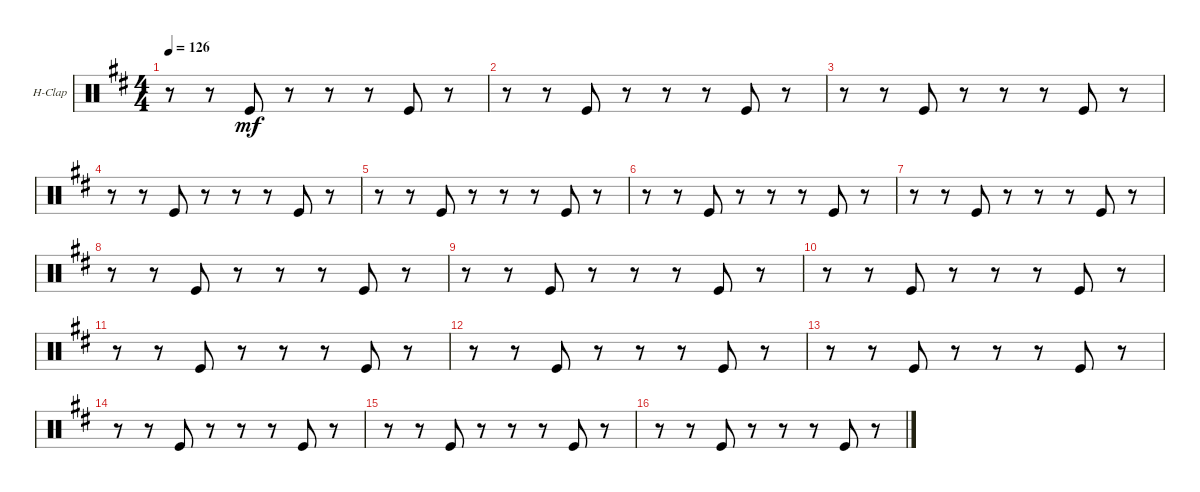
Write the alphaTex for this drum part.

\bracketExtendMode groupsimilarinstruments
\firstSystemTrackNameOrientation horizontal
\otherSystemsTrackNameOrientation horizontal
\track ("Hand Clap" "H-Clap") {instrument percussion}
\staff {score}
\articulation defaults
\ts (4 4)
\tempo 126
\clef neutral
\scale
0.333333
\ks d
r.8{dy mf} r.8 "Kick (hit)".8 r.8 r.8 r.8 "Kick (hit)".8 r.8 |
\scale
0.333333 r.8 r.8 "Kick (hit)".8 r.8 r.8 r.8 "Kick (hit)".8 r.8 |
\scale
0.333333 r.8 r.8 "Kick (hit)".8 r.8 r.8 r.8 "Kick (hit)".8 r.8 |
\scale
0.333333 r.8 r.8 "Kick (hit)".8 r.8 r.8 r.8 "Kick (hit)".8 r.8 |
\scale
0.333333 r.8 r.8 "Kick (hit)".8 r.8 r.8 r.8 "Kick (hit)".8 r.8 |
\scale
0.333333 r.8 r.8 "Kick (hit)".8 r.8 r.8 r.8 "Kick (hit)".8 r.8 |
\scale
0.333333 r.8 r.8 "Kick (hit)".8 r.8 r.8 r.8 "Kick (hit)".8 r.8 |
\scale
0.333333 r.8 r.8 "Kick (hit)".8 r.8 r.8 r.8 "Kick (hit)".8 r.8 |
\scale
0.333333 r.8 r.8 "Kick (hit)".8 r.8 r.8 r.8 "Kick (hit)".8 r.8 |
\scale
0.333333 r.8 r.8 "Kick (hit)".8 r.8 r.8 r.8 "Kick (hit)".8 r.8 |
\scale
0.333333 r.8 r.8 "Kick (hit)".8 r.8 r.8 r.8 "Kick (hit)".8 r.8 |
\scale
0.333333 r.8 r.8 "Kick (hit)".8 r.8 r.8 r.8 "Kick (hit)".8 r.8 |
\scale
0.333333 r.8 r.8 "Kick (hit)".8 r.8 r.8 r.8 "Kick (hit)".8 r.8 |
\scale
0.333333 r.8 r.8 "Kick (hit)".8 r.8 r.8 r.8 "Kick (hit)".8 r.8 |
\scale
0.333333 r.8 r.8 "Kick (hit)".8 r.8 r.8 r.8 "Kick (hit)".8 r.8 |
\scale
0.333333 r.8 r.8 "Kick (hit)".8 r.8 r.8 r.8 "Kick (hit)".8 r.8
